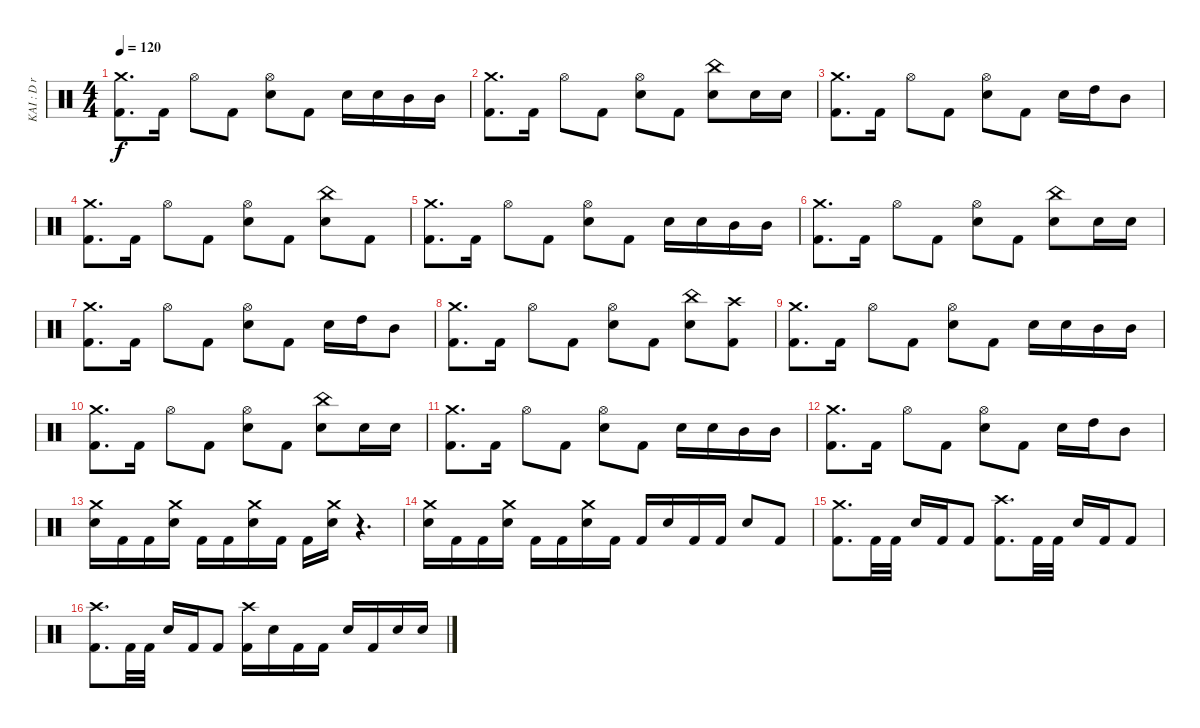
\track ("KAI : D r u m S" "KAI : D r ") {instrument percussion}
\staff {score}
\articulation defaults
\ts (4 4)
\tempo 120
\clef neutral
\ks c
("Crash medium (hit)" "Kick (hit) 2").8{d dy f} "Kick (hit) 2".16 "Hi-Hat (open)".8 "Kick (hit) 2".8 ("Hi-Hat (open)" "Electric Snare (hit)").8 "Kick (hit) 2".8 "Electric Snare (hit)".16 "Electric Snare (hit)".16 "Mid Tom (hit)".16 "Mid Tom (hit)".16 |
("Crash medium (hit)" "Kick (hit) 2").8{d} "Kick (hit) 2".16 "Hi-Hat (open)".8 "Kick (hit) 2".8 ("Hi-Hat (open)" "Electric Snare (hit)").8 "Kick (hit) 2".8 ("China (hit)" "Electric Snare (hit)").8 "Electric Snare (hit)".16 "Electric Snare (hit)".16 |
("Crash medium (hit)" "Kick (hit) 2").8{d} "Kick (hit) 2".16 "Hi-Hat (open)".8 "Kick (hit) 2".8 ("Hi-Hat (open)" "Electric Snare (hit)").8 "Kick (hit) 2".8 "Electric Snare (hit)".16 "High Tom (hit)".16 "Mid Tom (hit)".8 |
("Crash medium (hit)" "Kick (hit) 2").8{d} "Kick (hit) 2".16 "Hi-Hat (open)".8 "Kick (hit) 2".8 ("Hi-Hat (open)" "Electric Snare (hit)").8 "Kick (hit) 2".8 ("China (hit)" "Electric Snare (hit)").8 "Kick (hit) 2".8 |
("Crash medium (hit)" "Kick (hit) 2").8{d} "Kick (hit) 2".16 "Hi-Hat (open)".8 "Kick (hit) 2".8 ("Hi-Hat (open)" "Electric Snare (hit)").8 "Kick (hit) 2".8 "Electric Snare (hit)".16 "Electric Snare (hit)".16 "Mid Tom (hit)".16 "Mid Tom (hit)".16 |
("Crash medium (hit)" "Kick (hit) 2").8{d} "Kick (hit) 2".16 "Hi-Hat (open)".8 "Kick (hit) 2".8 ("Hi-Hat (open)" "Electric Snare (hit)").8 "Kick (hit) 2".8 ("China (hit)" "Electric Snare (hit)").8 "Electric Snare (hit)".16 "Electric Snare (hit)".16 |
("Crash medium (hit)" "Kick (hit) 2").8{d} "Kick (hit) 2".16 "Hi-Hat (open)".8 "Kick (hit) 2".8 ("Hi-Hat (open)" "Electric Snare (hit)").8 "Kick (hit) 2".8 "Electric Snare (hit)".16 "High Tom (hit)".16 "Mid Tom (hit)".8 |
("Crash medium (hit)" "Kick (hit) 2").8{d} "Kick (hit) 2".16 "Hi-Hat (open)".8 "Kick (hit) 2".8 ("Hi-Hat (open)" "Electric Snare (hit)").8 "Kick (hit) 2".8 ("China (hit)" "Electric Snare (hit)").8 ("Crash high (hit)" "Kick (hit) 2").8 |
("Crash medium (hit)" "Kick (hit) 2").8{d} "Kick (hit) 2".16 "Hi-Hat (open)".8 "Kick (hit) 2".8 ("Hi-Hat (open)" "Electric Snare (hit)").8 "Kick (hit) 2".8 "Electric Snare (hit)".16 "Electric Snare (hit)".16 "Mid Tom (hit)".16 "Mid Tom (hit)".16 |
("Crash medium (hit)" "Kick (hit) 2").8{d} "Kick (hit) 2".16 "Hi-Hat (open)".8 "Kick (hit) 2".8 ("Hi-Hat (open)" "Electric Snare (hit)").8 "Kick (hit) 2".8 ("China (hit)" "Electric Snare (hit)").8 "Electric Snare (hit)".16 "Electric Snare (hit)".16 |
("Crash medium (hit)" "Kick (hit) 2").8{d} "Kick (hit) 2".16 "Hi-Hat (open)".8 "Kick (hit) 2".8 ("Hi-Hat (open)" "Electric Snare (hit)").8 "Kick (hit) 2".8 "Electric Snare (hit)".16 "Electric Snare (hit)".16 "Mid Tom (hit)".16 "Mid Tom (hit)".16 |
("Crash medium (hit)" "Kick (hit) 2").8{d} "Kick (hit) 2".16 "Hi-Hat (open)".8 "Kick (hit) 2".8 ("Hi-Hat (open)" "Electric Snare (hit)").8 "Kick (hit) 2".8 "Electric Snare (hit)".16 "High Tom (hit)".16 "Mid Tom (hit)".8 |
("Crash medium (hit)" "Electric Snare (hit)").16 "Kick (hit) 2".16 "Kick (hit) 2".16 ("Crash medium (hit)" "Electric Snare (hit)").16 "Kick (hit) 2".16 "Kick (hit) 2".16 ("Crash medium (hit)" "Electric Snare (hit)").16 "Kick (hit) 2".16 "Kick (hit) 2".16 ("Crash medium (hit)" "Electric Snare (hit)").16 r.4{d} |
("Crash medium (hit)" "Electric Snare (hit)").16 "Kick (hit) 2".16 "Kick (hit) 2".16 ("Crash medium (hit)" "Electric Snare (hit)").16 "Kick (hit) 2".16 "Kick (hit) 2".16 ("Crash medium (hit)" "Electric Snare (hit)").16 "Kick (hit) 2".16 "Kick (hit) 2".16 "Electric Snare (hit)".16 "Kick (hit) 2".16 "Kick (hit) 2".16 "Electric Snare (hit)".8 "Kick (hit) 2".8 |
("Crash medium (hit)" "Kick (hit) 2").8{d} "Kick (hit) 2".32 "Kick (hit) 2".32 "Electric Snare (hit)".16 "Kick (hit) 2".16 "Kick (hit) 2".8 ("Crash high (hit)" "Kick (hit) 2").8{d} "Kick (hit) 2".32 "Kick (hit) 2".32 "Electric Snare (hit)".16 "Kick (hit) 2".16 "Kick (hit) 2".8 |
("Crash high (hit)" "Kick (hit) 2").8{d} "Kick (hit) 2".32 "Kick (hit) 2".32 "Electric Snare (hit)".16 "Kick (hit) 2".16 "Kick (hit) 2".8 ("Crash high (hit)" "Kick (hit) 2").16 "Electric Snare (hit)".16 "Kick (hit) 2".16 "Kick (hit) 2".16 "Electric Snare (hit)".16 "Kick (hit) 2".16 "Electric Snare (hit)".16 "Electric Snare (hit)".16
